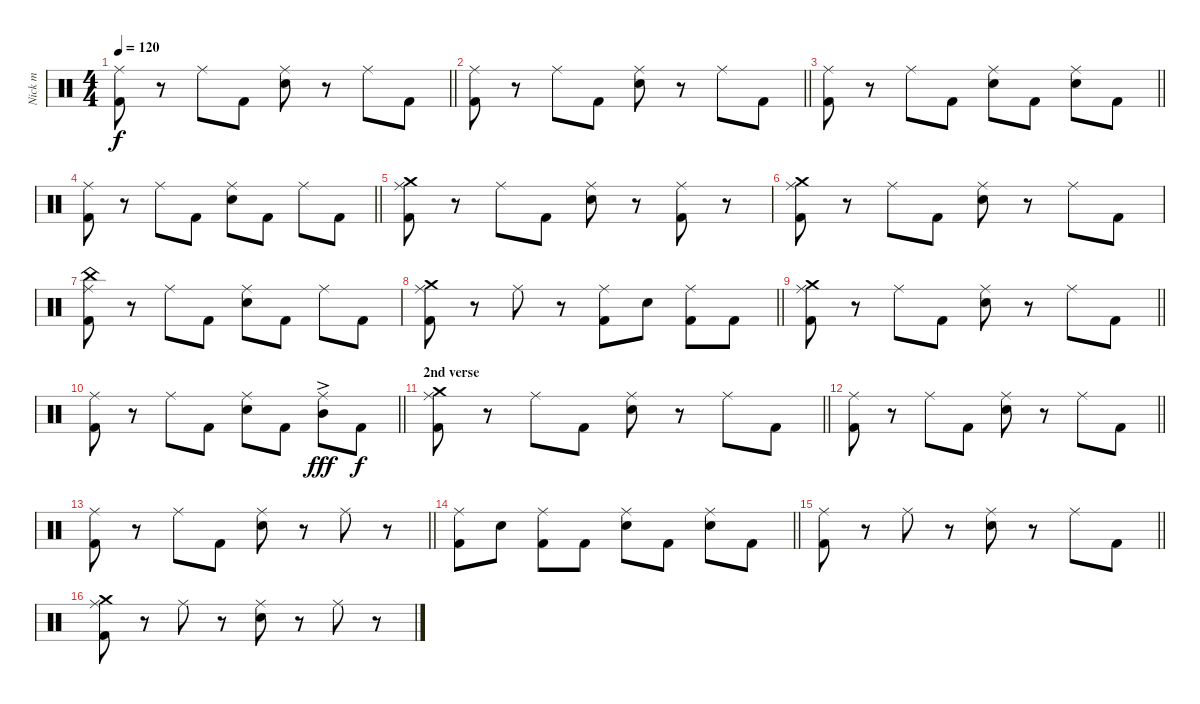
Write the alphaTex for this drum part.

\track ("Nick m" "Nick m") {instrument percussion}
\staff {score}
\articulation defaults
\ts (4 4)
\tempo 120
\clef neutral
\barLineRight lightlight
\ks c
("Ride (middle)" "Kick (hit) 2").8{dy f} r.8 "Ride (middle)".8 "Kick (hit) 2".8 ("Ride (middle)" "Snare (hit) 2").8 r.8 "Ride (middle)".8 "Kick (hit) 2".8 |
\barLineRight lightlight
("Ride (middle)" "Kick (hit) 2").8 r.8 "Ride (middle)".8 "Kick (hit) 2".8 ("Ride (middle)" "Snare (hit) 2").8 r.8 "Ride (middle)".8 "Kick (hit) 2".8 |
\barLineRight lightlight
("Ride (middle)" "Kick (hit) 2").8 r.8 "Ride (middle)".8 "Kick (hit) 2".8 ("Ride (middle)" "Snare (hit) 2").8 "Kick (hit) 2".8 ("Ride (middle)" "Snare (hit) 2").8 "Kick (hit) 2".8 |
\barLineRight lightlight
("Ride (middle)" "Kick (hit) 2").8 r.8 "Ride (middle)".8 "Kick (hit) 2".8 ("Ride (middle)" "Snare (hit) 2").8 "Kick (hit) 2".8 "Ride (middle)".8 "Kick (hit) 2".8 |
("Crash medium (hit)" "Ride (middle)" "Kick (hit) 2").8 r.8 "Ride (middle)".8 "Kick (hit) 2".8 ("Ride (middle)" "Snare (hit) 2").8 r.8 ("Ride (middle)" "Kick (hit) 2").8 r.8 |
("Ride (middle)" "Crash medium (hit)" "Kick (hit) 2").8 r.8 "Ride (middle)".8 "Kick (hit) 2".8 ("Ride (middle)" "Snare (hit) 2").8 r.8 "Ride (middle)".8 "Kick (hit) 2".8 |
("Ride (middle)" "China (hit)" "Kick (hit) 2").8 r.8 "Ride (middle)".8 "Kick (hit) 2".8 ("Ride (middle)" "Snare (hit) 2").8 "Kick (hit) 2".8 "Ride (middle)".8 "Kick (hit) 2".8 |
\barLineRight lightlight
("Crash medium (hit)" "Ride (middle)" "Kick (hit) 2").8 r.8 "Ride (middle)".8 r.8 ("Ride (middle)" "Kick (hit) 2").8 "Snare (hit) 2".8 ("Ride (middle)" "Kick (hit) 2").8 "Kick (hit) 2".8 |
\barLineRight lightlight
("Crash medium (hit)" "Ride (middle)" "Kick (hit) 2").8 r.8 "Ride (middle)".8 "Kick (hit) 2".8 ("Ride (middle)" "Snare (hit) 2").8 r.8 "Ride (middle)".8 "Kick (hit) 2".8 |
\barLineRight lightlight
("Ride (middle)" "Kick (hit) 2").8 r.8 "Ride (middle)".8 "Kick (hit) 2".8 ("Ride (middle)" "Snare (hit) 2").8 "Kick (hit) 2".8 ("Ride (middle)" "Mid Tom (hit)"{ac}).8{dy fff} "Kick (hit) 2".8{dy f} |
\section ("" "2nd verse")
\barLineRight lightlight
("Crash medium (hit)" "Ride (middle)" "Kick (hit) 2").8 r.8 "Ride (middle)".8 "Kick (hit) 2".8 ("Ride (middle)" "Snare (hit) 2").8 r.8 "Ride (middle)".8 "Kick (hit) 2".8 |
\barLineRight lightlight
("Ride (middle)" "Kick (hit) 2").8 r.8 "Ride (middle)".8 "Kick (hit) 2".8 ("Ride (middle)" "Snare (hit) 2").8 r.8 "Ride (middle)".8 "Kick (hit) 2".8 |
\barLineRight lightlight
("Ride (middle)" "Kick (hit) 2").8 r.8 "Ride (middle)".8 "Kick (hit) 2".8 ("Ride (middle)" "Snare (hit) 2").8 r.8 "Ride (middle)".8 r.8 |
\barLineRight lightlight
("Ride (middle)" "Kick (hit) 2").8 "Snare (hit) 2".8 ("Ride (middle)" "Kick (hit) 2").8 "Kick (hit) 2".8 ("Ride (middle)" "Snare (hit) 2").8 "Kick (hit) 2".8 ("Ride (middle)" "Snare (hit) 2").8 "Kick (hit) 2".8 |
\barLineRight lightlight
("Ride (middle)" "Kick (hit) 2").8 r.8 "Ride (middle)".8 r.8 ("Ride (middle)" "Snare (hit) 2").8 r.8 "Ride (middle)".8 "Kick (hit) 2".8 |
("Crash medium (hit)" "Ride (middle)" "Kick (hit) 2").8 r.8 "Ride (middle)".8 r.8 ("Ride (middle)" "Snare (hit) 2").8 r.8 "Ride (middle)".8 r.8
